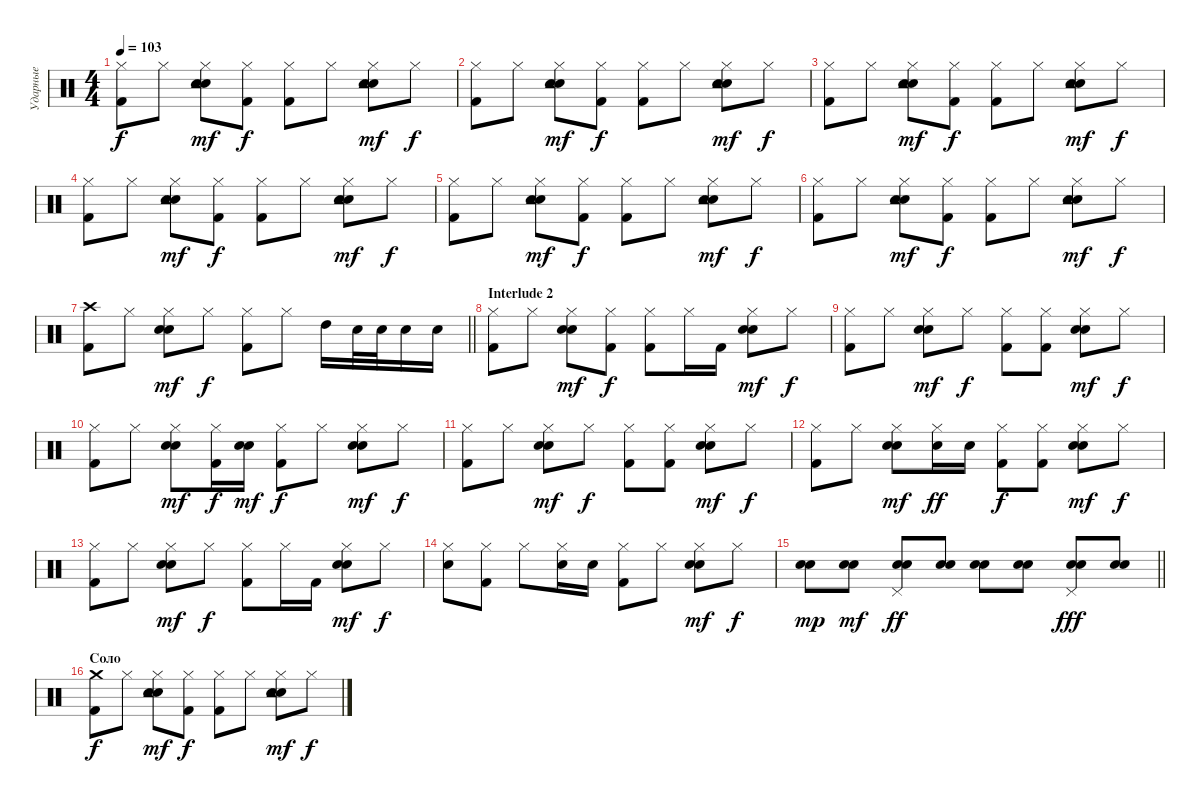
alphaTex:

\track ("Ударные" "Ударные") {instrument percussion}
\staff {score}
\articulation defaults
\ts (4 4)
\tempo 103
\clef neutral
\ks c
("Hi-Hat (closed)" "Kick (hit) 2").8{dy f} "Hi-Hat (closed)".8 ("Hi-Hat (closed)" "Electric Snare (hit)" "Snare (hit) 2" "Tambourine (hit)").8{dy mf} ("Hi-Hat (closed)" "Kick (hit) 2").8{dy f} ("Hi-Hat (closed)" "Kick (hit) 2").8 "Hi-Hat (closed)".8 ("Hi-Hat (closed)" "Electric Snare (hit)" "Snare (hit) 2" "Tambourine (hit)").8{dy mf} "Hi-Hat (closed)".8{dy f} |
("Hi-Hat (closed)" "Kick (hit) 2").8 "Hi-Hat (closed)".8 ("Hi-Hat (closed)" "Electric Snare (hit)" "Snare (hit) 2" "Tambourine (hit)").8{dy mf} ("Hi-Hat (closed)" "Kick (hit) 2").8{dy f} ("Hi-Hat (closed)" "Kick (hit) 2").8 "Hi-Hat (closed)".8 ("Hi-Hat (closed)" "Electric Snare (hit)" "Snare (hit) 2" "Tambourine (hit)").8{dy mf} "Hi-Hat (closed)".8{dy f} |
("Hi-Hat (closed)" "Kick (hit) 2").8 "Hi-Hat (closed)".8 ("Hi-Hat (closed)" "Electric Snare (hit)" "Snare (hit) 2" "Tambourine (hit)").8{dy mf} ("Hi-Hat (closed)" "Kick (hit) 2").8{dy f} ("Hi-Hat (closed)" "Kick (hit) 2").8 "Hi-Hat (closed)".8 ("Hi-Hat (closed)" "Electric Snare (hit)" "Snare (hit) 2" "Tambourine (hit)").8{dy mf} "Hi-Hat (closed)".8{dy f} |
("Hi-Hat (closed)" "Kick (hit) 2").8 "Hi-Hat (closed)".8 ("Hi-Hat (closed)" "Electric Snare (hit)" "Snare (hit) 2" "Tambourine (hit)").8{dy mf} ("Hi-Hat (closed)" "Kick (hit) 2").8{dy f} ("Hi-Hat (closed)" "Kick (hit) 2").8 "Hi-Hat (closed)".8 ("Hi-Hat (closed)" "Electric Snare (hit)" "Snare (hit) 2" "Tambourine (hit)").8{dy mf} "Hi-Hat (closed)".8{dy f} |
("Hi-Hat (closed)" "Kick (hit) 2").8 "Hi-Hat (closed)".8 ("Hi-Hat (closed)" "Electric Snare (hit)" "Snare (hit) 2" "Tambourine (hit)").8{dy mf} ("Hi-Hat (closed)" "Kick (hit) 2").8{dy f} ("Hi-Hat (closed)" "Kick (hit) 2").8 "Hi-Hat (closed)".8 ("Hi-Hat (closed)" "Electric Snare (hit)" "Snare (hit) 2" "Tambourine (hit)").8{dy mf} "Hi-Hat (closed)".8{dy f} |
("Hi-Hat (closed)" "Kick (hit) 2").8 "Hi-Hat (closed)".8 ("Hi-Hat (closed)" "Electric Snare (hit)" "Snare (hit) 2" "Tambourine (hit)").8{dy mf} ("Hi-Hat (closed)" "Kick (hit) 2").8{dy f} ("Hi-Hat (closed)" "Kick (hit) 2").8 "Hi-Hat (closed)".8 ("Hi-Hat (closed)" "Electric Snare (hit)" "Snare (hit) 2" "Tambourine (hit)").8{dy mf} "Hi-Hat (closed)".8{dy f} |
\barLineRight lightlight
("Crash high (hit)" "Kick (hit) 2").8 "Hi-Hat (closed)".8 ("Hi-Hat (closed)" "Electric Snare (hit)" "Snare (hit) 2").8{dy mf} "Hi-Hat (closed)".8{dy f} ("Hi-Hat (closed)" "Kick (hit) 2").8 "Hi-Hat (closed)".8 "High Tom (hit)".16 "Electric Snare (hit)".32 "Electric Snare (hit)".32 "Electric Snare (hit)".16 "Electric Snare (hit)".16 |
\section ("" "Interlude 2")
("Hi-Hat (closed)" "Kick (hit) 2").8 "Hi-Hat (closed)".8 ("Hi-Hat (closed)" "Electric Snare (hit)" "Snare (hit) 2").8{dy mf} ("Hi-Hat (closed)" "Kick (hit) 2").8{dy f} ("Hi-Hat (closed)" "Kick (hit) 2").8 "Hi-Hat (closed)".16 "Kick (hit) 2".16 ("Hi-Hat (closed)" "Electric Snare (hit)" "Snare (hit) 2").8{dy mf} "Hi-Hat (closed)".8{dy f} |
("Hi-Hat (closed)" "Kick (hit) 2").8 "Hi-Hat (closed)".8 ("Hi-Hat (closed)" "Electric Snare (hit)" "Snare (hit) 2").8{dy mf} "Hi-Hat (closed)".8{dy f} ("Hi-Hat (closed)" "Kick (hit) 2").8 ("Hi-Hat (closed)" "Kick (hit) 2").8 ("Hi-Hat (closed)" "Electric Snare (hit)" "Snare (hit) 2").8{dy mf} "Hi-Hat (closed)".8{dy f} |
("Hi-Hat (closed)" "Kick (hit) 2").8 "Hi-Hat (closed)".8 ("Hi-Hat (closed)" "Electric Snare (hit)" "Snare (hit) 2").8{dy mf} ("Hi-Hat (closed)" "Kick (hit) 2").16{dy f} ("Electric Snare (hit)" "Snare (hit) 2").16{dy mf} ("Hi-Hat (closed)" "Kick (hit) 2").8{dy f} "Hi-Hat (closed)".8 ("Hi-Hat (closed)" "Electric Snare (hit)" "Snare (hit) 2").8{dy mf} "Hi-Hat (closed)".8{dy f} |
("Hi-Hat (closed)" "Kick (hit) 2").8 "Hi-Hat (closed)".8 ("Hi-Hat (closed)" "Electric Snare (hit)" "Snare (hit) 2").8{dy mf} "Hi-Hat (closed)".8{dy f} ("Hi-Hat (closed)" "Kick (hit) 2").8 ("Hi-Hat (closed)" "Kick (hit) 2").8 ("Hi-Hat (closed)" "Electric Snare (hit)" "Snare (hit) 2").8{dy mf} "Hi-Hat (closed)".8{dy f} |
("Hi-Hat (closed)" "Kick (hit) 2").8 "Hi-Hat (closed)".8 ("Hi-Hat (closed)" "Electric Snare (hit)" "Snare (hit) 2").8{dy mf} ("Hi-Hat (closed)" "Electric Snare (hit)").16{dy ff} "Electric Snare (hit)".16 ("Hi-Hat (closed)" "Kick (hit) 2").8{dy f} ("Hi-Hat (closed)" "Kick (hit) 2").8 ("Hi-Hat (closed)" "Electric Snare (hit)" "Snare (hit) 2").8{dy mf} "Hi-Hat (closed)".8{dy f} |
("Hi-Hat (closed)" "Kick (hit) 2").8 "Hi-Hat (closed)".8 ("Hi-Hat (closed)" "Electric Snare (hit)" "Snare (hit) 2").8{dy mf} "Hi-Hat (closed)".8{dy f} ("Hi-Hat (closed)" "Kick (hit) 2").8 "Hi-Hat (closed)".16 "Kick (hit) 2".16 ("Hi-Hat (closed)" "Electric Snare (hit)" "Snare (hit) 2").8{dy mf} "Hi-Hat (closed)".8{dy f} |
("Hi-Hat (closed)" "Electric Snare (hit)").8 ("Hi-Hat (closed)" "Kick (hit) 2").8 "Hi-Hat (closed)".8 ("Hi-Hat (closed)" "Electric Snare (hit)").16 "Electric Snare (hit)".16 ("Hi-Hat (closed)" "Kick (hit) 2").8 "Hi-Hat (closed)".8 ("Hi-Hat (closed)" "Electric Snare (hit)" "Snare (hit) 2").8{dy mf} "Hi-Hat (closed)".8{dy f} |
\barLineRight lightlight
("Electric Snare (hit)" "Snare (hit) 2").8{dy mp} ("Electric Snare (hit)" "Snare (hit) 2").8{dy mf} ("Pedal Hi-Hat (hit)" "Electric Snare (hit)" "Snare (hit) 2").8{dy ff} ("Electric Snare (hit)" "Snare (hit) 2").8 ("Electric Snare (hit)" "Snare (hit) 2").8 ("Electric Snare (hit)" "Snare (hit) 2").8 ("Pedal Hi-Hat (hit)" "Electric Snare (hit)" "Snare (hit) 2").8{dy fff} ("Electric Snare (hit)" "Snare (hit) 2").8 |
\section ("" "Cоло")
("Crash medium (hit)" "Kick (hit) 2").8{dy f} "Hi-Hat (closed)".8 ("Hi-Hat (closed)" "Electric Snare (hit)" "Snare (hit) 2" "Tambourine (hit)").8{dy mf} ("Hi-Hat (closed)" "Kick (hit) 2").8{dy f} ("Hi-Hat (closed)" "Kick (hit) 2").8 "Hi-Hat (closed)".8 ("Hi-Hat (closed)" "Electric Snare (hit)" "Snare (hit) 2" "Tambourine (hit)").8{dy mf} "Hi-Hat (closed)".8{dy f}
